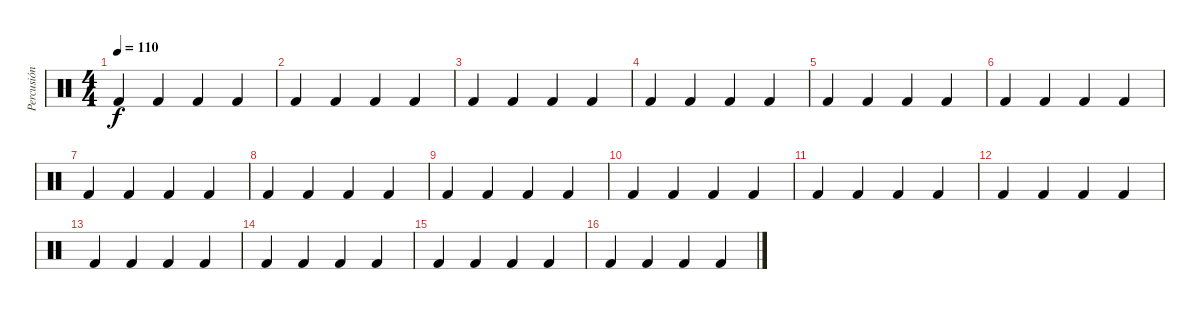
\track ("Percusión" "Percusión") {instrument percussion}
\staff {score}
\articulation defaults
\ts (4 4)
\tempo 110
\clef neutral
\ks c "Kick (hit) 2".4{dy f} "Kick (hit) 2".4 "Kick (hit) 2".4 "Kick (hit) 2".4
|
"Kick (hit) 2".4 "Kick (hit) 2".4 "Kick (hit) 2".4 "Kick (hit) 2".4 |
"Kick (hit) 2".4 "Kick (hit) 2".4 "Kick (hit) 2".4 "Kick (hit) 2".4 |
"Kick (hit) 2".4 "Kick (hit) 2".4 "Kick (hit) 2".4 "Kick (hit) 2".4 |
"Kick (hit) 2".4 "Kick (hit) 2".4 "Kick (hit) 2".4 "Kick (hit) 2".4 |
"Kick (hit) 2".4 "Kick (hit) 2".4 "Kick (hit) 2".4 "Kick (hit) 2".4 |
"Kick (hit) 2".4 "Kick (hit) 2".4 "Kick (hit) 2".4 "Kick (hit) 2".4 |
"Kick (hit) 2".4 "Kick (hit) 2".4 "Kick (hit) 2".4 "Kick (hit) 2".4 |
"Kick (hit) 2".4 "Kick (hit) 2".4 "Kick (hit) 2".4 "Kick (hit) 2".4 |
"Kick (hit) 2".4 "Kick (hit) 2".4 "Kick (hit) 2".4 "Kick (hit) 2".4 |
"Kick (hit) 2".4 "Kick (hit) 2".4 "Kick (hit) 2".4 "Kick (hit) 2".4 |
"Kick (hit) 2".4 "Kick (hit) 2".4 "Kick (hit) 2".4 "Kick (hit) 2".4 |
"Kick (hit) 2".4 "Kick (hit) 2".4 "Kick (hit) 2".4 "Kick (hit) 2".4 |
"Kick (hit) 2".4 "Kick (hit) 2".4 "Kick (hit) 2".4 "Kick (hit) 2".4 |
"Kick (hit) 2".4 "Kick (hit) 2".4 "Kick (hit) 2".4 "Kick (hit) 2".4 |
"Kick (hit) 2".4 "Kick (hit) 2".4 "Kick (hit) 2".4 "Kick (hit) 2".4
